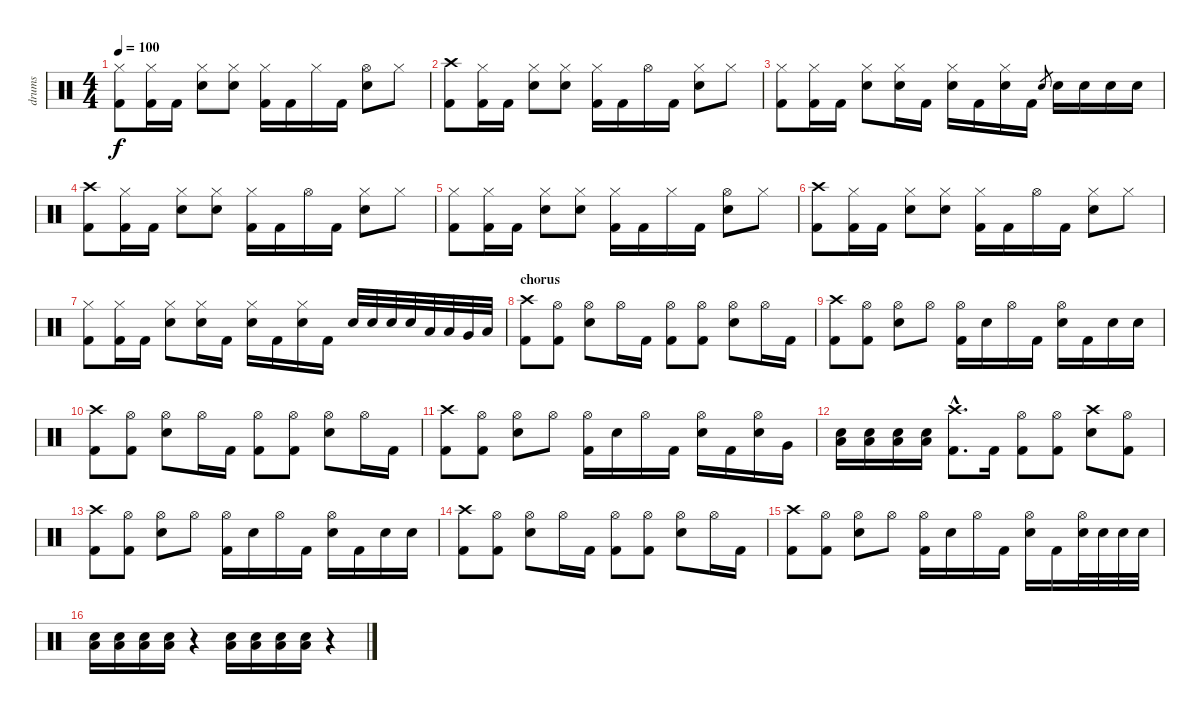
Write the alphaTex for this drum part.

\track ("drums" "drums") {instrument percussion}
\staff {score}
\articulation defaults
\ts (4 4)
\tempo 100
\clef neutral
\ks c
("Hi-Hat (closed)" "Kick (hit) 2").8{dy f} ("Hi-Hat (closed)" "Kick (hit) 2").16 "Kick (hit) 2".16 ("Hi-Hat (closed)" "Electric Snare (hit)").8 ("Hi-Hat (closed)" "Electric Snare (hit)").8 ("Hi-Hat (closed)" "Kick (hit) 2").16 "Kick (hit) 2".16 "Hi-Hat (closed)".16 "Kick (hit) 2".16 ("Hi-Hat (open)" "Electric Snare (hit)").8 "Hi-Hat (closed)".8 |
("Crash high (hit)" "Kick (hit) 2").8 ("Hi-Hat (closed)" "Kick (hit) 2").16 "Kick (hit) 2".16 ("Hi-Hat (closed)" "Electric Snare (hit)").8 ("Hi-Hat (closed)" "Electric Snare (hit)").8 ("Hi-Hat (closed)" "Kick (hit) 2").16 "Kick (hit) 2".16 "Hi-Hat (open)".16 "Kick (hit) 2".16 ("Hi-Hat (closed)" "Electric Snare (hit)").8 "Hi-Hat (closed)".8 |
("Hi-Hat (closed)" "Kick (hit) 2").8 ("Hi-Hat (closed)" "Kick (hit) 2").16 "Kick (hit) 2".16 ("Hi-Hat (closed)" "Electric Snare (hit)").8 ("Hi-Hat (closed)" "Electric Snare (hit)").16 "Kick (hit) 2".16 ("Hi-Hat (closed)" "Electric Snare (hit)").16 "Kick (hit) 2".16 ("Hi-Hat (closed)" "Electric Snare (hit)").16 "Kick (hit) 2".16 "Electric Snare (hit)".8{gr} "Electric Snare (hit)".16 "Electric Snare (hit)".16 "Electric Snare (hit)".16 "Electric Snare (hit)".16 |
("Crash high (hit)" "Kick (hit) 2").8 ("Hi-Hat (closed)" "Kick (hit) 2").16 "Kick (hit) 2".16 ("Hi-Hat (closed)" "Electric Snare (hit)").8 ("Hi-Hat (closed)" "Electric Snare (hit)").8 ("Hi-Hat (closed)" "Kick (hit) 2").16 "Kick (hit) 2".16 "Hi-Hat (open)".16 "Kick (hit) 2".16 ("Hi-Hat (closed)" "Electric Snare (hit)").8 "Hi-Hat (closed)".8 |
("Hi-Hat (closed)" "Kick (hit) 2").8 ("Hi-Hat (closed)" "Kick (hit) 2").16 "Kick (hit) 2".16 ("Hi-Hat (closed)" "Electric Snare (hit)").8 ("Hi-Hat (closed)" "Electric Snare (hit)").8 ("Hi-Hat (closed)" "Kick (hit) 2").16 "Kick (hit) 2".16 "Hi-Hat (closed)".16 "Kick (hit) 2".16 ("Hi-Hat (open)" "Electric Snare (hit)").8 "Hi-Hat (closed)".8 |
("Crash high (hit)" "Kick (hit) 2").8 ("Hi-Hat (closed)" "Kick (hit) 2").16 "Kick (hit) 2".16 ("Hi-Hat (closed)" "Electric Snare (hit)").8 ("Hi-Hat (closed)" "Electric Snare (hit)").8 ("Hi-Hat (closed)" "Kick (hit) 2").16 "Kick (hit) 2".16 "Hi-Hat (open)".16 "Kick (hit) 2".16 ("Hi-Hat (closed)" "Electric Snare (hit)").8 "Hi-Hat (closed)".8 |
("Hi-Hat (closed)" "Kick (hit) 2").8 ("Hi-Hat (closed)" "Kick (hit) 2").16 "Kick (hit) 2".16 ("Hi-Hat (closed)" "Electric Snare (hit)").8 ("Hi-Hat (closed)" "Electric Snare (hit)").16 "Kick (hit) 2".16 ("Hi-Hat (closed)" "Electric Snare (hit)").16 "Kick (hit) 2".16 ("Hi-Hat (closed)" "Electric Snare (hit)").16 "Kick (hit) 2".16 "Electric Snare (hit)".32 "Electric Snare (hit)".32 "Electric Snare (hit)".32 "Electric Snare (hit)".32 "Low Tom (hit)".32 "Low Tom (hit)".32 "Very Low Tom (hit)".32 "Low Floor Tom (hit)".32 |
\section ("" "chorus")
("Crash high (hit)" "Kick (hit) 2").8 ("Hi-Hat (open)" "Kick (hit) 2").8 ("Hi-Hat (open)" "Electric Snare (hit)").8 "Hi-Hat (open)".16 "Kick (hit) 2".16 ("Hi-Hat (open)" "Kick (hit) 2").8 ("Hi-Hat (open)" "Kick (hit) 2").8 ("Hi-Hat (open)" "Electric Snare (hit)").8 "Hi-Hat (open)".16 "Kick (hit) 2".16 |
("Crash high (hit)" "Kick (hit) 2").8 ("Hi-Hat (open)" "Kick (hit) 2").8 ("Hi-Hat (open)" "Electric Snare (hit)").8 "Hi-Hat (open)".8 ("Hi-Hat (open)" "Kick (hit) 2").16 "Electric Snare (hit)".16 "Hi-Hat (open)".16 "Kick (hit) 2".16 ("Hi-Hat (open)" "Electric Snare (hit)").16 "Kick (hit) 2".16 "Electric Snare (hit)".16 "Electric Snare (hit)".16 |
("Crash high (hit)" "Kick (hit) 2").8 ("Hi-Hat (open)" "Kick (hit) 2").8 ("Hi-Hat (open)" "Electric Snare (hit)").8 "Hi-Hat (open)".16 "Kick (hit) 2".16 ("Hi-Hat (open)" "Kick (hit) 2").8 ("Hi-Hat (open)" "Kick (hit) 2").8 ("Hi-Hat (open)" "Electric Snare (hit)").8 "Hi-Hat (open)".16 "Kick (hit) 2".16 |
("Crash high (hit)" "Kick (hit) 2").8 ("Hi-Hat (open)" "Kick (hit) 2").8 ("Hi-Hat (open)" "Electric Snare (hit)").8 "Hi-Hat (open)".8 ("Hi-Hat (open)" "Kick (hit) 2").16 "Electric Snare (hit)".16 "Hi-Hat (open)".16 "Kick (hit) 2".16 ("Hi-Hat (open)" "Electric Snare (hit)").16 "Kick (hit) 2".16 ("Hi-Hat (open)" "Electric Snare (hit)").16 "Very Low Tom (hit)".16 |
("Low Floor Tom (hit)" "Electric Snare (hit)").16 ("Low Floor Tom (hit)" "Electric Snare (hit)").16 ("Low Floor Tom (hit)" "Electric Snare (hit)").16 ("Low Floor Tom (hit)" "Electric Snare (hit)").16 ("Crash high (hit)"{hac} "Kick (hit) 2"{hac}).8{d} "Kick (hit) 2".16 ("Hi-Hat (open)" "Kick (hit) 2").8 ("Hi-Hat (open)" "Kick (hit) 2").8 ("Crash high (hit)" "Electric Snare (hit)").8 ("Hi-Hat (open)" "Kick (hit) 2").8 |
("Crash high (hit)" "Kick (hit) 2").8 ("Hi-Hat (open)" "Kick (hit) 2").8 ("Hi-Hat (open)" "Electric Snare (hit)").8 "Hi-Hat (open)".8 ("Hi-Hat (open)" "Kick (hit) 2").16 "Electric Snare (hit)".16 "Hi-Hat (open)".16 "Kick (hit) 2".16 ("Hi-Hat (open)" "Electric Snare (hit)").16 "Kick (hit) 2".16 "Electric Snare (hit)".16 "Electric Snare (hit)".16 |
("Crash high (hit)" "Kick (hit) 2").8 ("Hi-Hat (open)" "Kick (hit) 2").8 ("Hi-Hat (open)" "Electric Snare (hit)").8 "Hi-Hat (open)".16 "Kick (hit) 2".16 ("Hi-Hat (open)" "Kick (hit) 2").8 ("Hi-Hat (open)" "Kick (hit) 2").8 ("Hi-Hat (open)" "Electric Snare (hit)").8 "Hi-Hat (open)".16 "Kick (hit) 2".16 |
("Crash high (hit)" "Kick (hit) 2").8 ("Hi-Hat (open)" "Kick (hit) 2").8 ("Hi-Hat (open)" "Electric Snare (hit)").8 "Hi-Hat (open)".8 ("Hi-Hat (open)" "Kick (hit) 2").16 "Electric Snare (hit)".16 "Hi-Hat (open)".16 "Kick (hit) 2".16 ("Hi-Hat (open)" "Electric Snare (hit)").16 "Kick (hit) 2".16 ("Hi-Hat (open)" "Electric Snare (hit)").32 "Electric Snare (hit)".32 "Electric Snare (hit)".32 "Electric Snare (hit)".32 |
("Low Floor Tom (hit)" "Electric Snare (hit)").16 ("Low Floor Tom (hit)" "Electric Snare (hit)").16 ("Low Floor Tom (hit)" "Electric Snare (hit)").16 ("Low Floor Tom (hit)" "Electric Snare (hit)").16 r.4 ("Low Floor Tom (hit)" "Electric Snare (hit)").16 ("Low Floor Tom (hit)" "Electric Snare (hit)").16 ("Low Floor Tom (hit)" "Electric Snare (hit)").16 ("Low Floor Tom (hit)" "Electric Snare (hit)").16 r.4
